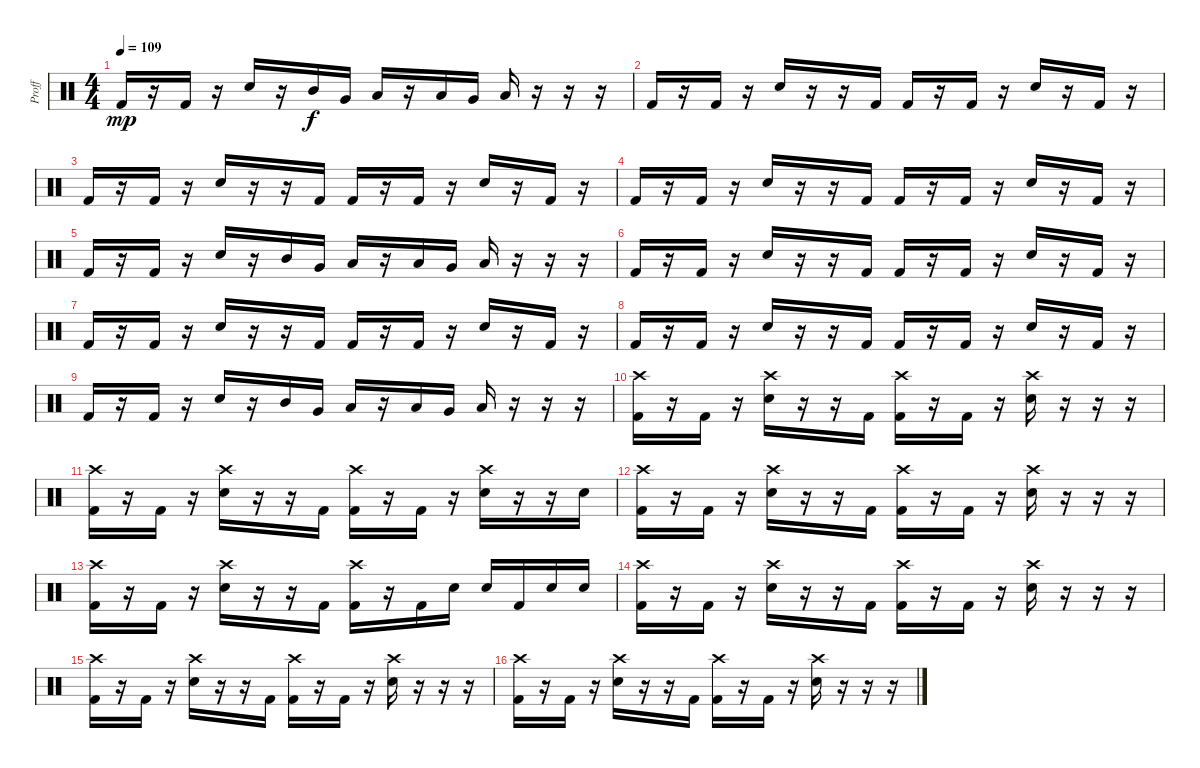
\track ("Proff" "Proff") {instrument percussion}
\staff {score}
\articulation defaults
\ts (4 4)
\tempo 109
\clef neutral
\ks c "Kick (hit) 2".16{dy mp}
r.16 "Kick (hit) 2".16 r.16 "Electric Snare (hit)".16 r.16 "Mid Tom (hit)".16{dy f} "Very Low Tom (hit)".16 "Low Tom (hit)".16 r.16 "Low Tom (hit)".16 "Very Low Tom (hit)".16 "Low Floor Tom (hit)".16 r.16 r.16 r.16 |
"Kick (hit) 2".16 r.16 "Kick (hit) 2".16 r.16 "Electric Snare (hit)".16 r.16 r.16 "Kick (hit) 2".16 "Kick (hit) 2".16 r.16 "Kick (hit) 2".16 r.16 "Electric Snare (hit)".16 r.16 "Kick (hit) 2".16 r.16 |
"Kick (hit) 2".16 r.16 "Kick (hit) 2".16 r.16 "Electric Snare (hit)".16 r.16 r.16 "Kick (hit) 2".16 "Kick (hit) 2".16 r.16 "Kick (hit) 2".16 r.16 "Electric Snare (hit)".16 r.16 "Kick (hit) 2".16 r.16 |
"Kick (hit) 2".16 r.16 "Kick (hit) 2".16 r.16 "Electric Snare (hit)".16 r.16 r.16 "Kick (hit) 2".16 "Kick (hit) 2".16 r.16 "Kick (hit) 2".16 r.16 "Electric Snare (hit)".16 r.16 "Kick (hit) 2".16 r.16 |
"Kick (hit) 2".16 r.16 "Kick (hit) 2".16 r.16 "Electric Snare (hit)".16 r.16 "Mid Tom (hit)".16 "Very Low Tom (hit)".16 "Low Tom (hit)".16 r.16 "Low Tom (hit)".16 "Very Low Tom (hit)".16 "Low Floor Tom (hit)".16 r.16 r.16 r.16 |
"Kick (hit) 2".16 r.16 "Kick (hit) 2".16 r.16 "Electric Snare (hit)".16 r.16 r.16 "Kick (hit) 2".16 "Kick (hit) 2".16 r.16 "Kick (hit) 2".16 r.16 "Electric Snare (hit)".16 r.16 "Kick (hit) 2".16 r.16 |
"Kick (hit) 2".16 r.16 "Kick (hit) 2".16 r.16 "Electric Snare (hit)".16 r.16 r.16 "Kick (hit) 2".16 "Kick (hit) 2".16 r.16 "Kick (hit) 2".16 r.16 "Electric Snare (hit)".16 r.16 "Kick (hit) 2".16 r.16 |
"Kick (hit) 2".16 r.16 "Kick (hit) 2".16 r.16 "Electric Snare (hit)".16 r.16 r.16 "Kick (hit) 2".16 "Kick (hit) 2".16 r.16 "Kick (hit) 2".16 r.16 "Electric Snare (hit)".16 r.16 "Kick (hit) 2".16 r.16 |
"Kick (hit) 2".16 r.16 "Kick (hit) 2".16 r.16 "Electric Snare (hit)".16 r.16 "Mid Tom (hit)".16 "Very Low Tom (hit)".16 "Low Tom (hit)".16 r.16 "Low Tom (hit)".16 "Very Low Tom (hit)".16 "Low Floor Tom (hit)".16 r.16 r.16 r.16 |
("Crash high (hit)" "Kick (hit) 2").16 r.16 "Kick (hit) 2".16 r.16 ("Crash high (hit)" "Electric Snare (hit)").16 r.16 r.16 "Kick (hit) 2".16 ("Crash high (hit)" "Kick (hit) 2").16 r.16 "Kick (hit) 2".16 r.16 ("Crash high (hit)" "Electric Snare (hit)").16 r.16 r.16 r.16 |
("Crash high (hit)" "Kick (hit) 2").16 r.16 "Kick (hit) 2".16 r.16 ("Crash high (hit)" "Electric Snare (hit)").16 r.16 r.16 "Kick (hit) 2".16 ("Crash high (hit)" "Kick (hit) 2").16 r.16 "Kick (hit) 2".16 r.16 ("Crash high (hit)" "Electric Snare (hit)").16 r.16 r.16 "Electric Snare (hit)".16 |
("Crash high (hit)" "Kick (hit) 2").16 r.16 "Kick (hit) 2".16 r.16 ("Crash high (hit)" "Electric Snare (hit)").16 r.16 r.16 "Kick (hit) 2".16 ("Crash high (hit)" "Kick (hit) 2").16 r.16 "Kick (hit) 2".16 r.16 ("Crash high (hit)" "Electric Snare (hit)").16 r.16 r.16 r.16 |
("Crash high (hit)" "Kick (hit) 2").16 r.16 "Kick (hit) 2".16 r.16 ("Crash high (hit)" "Electric Snare (hit)").16 r.16 r.16 "Kick (hit) 2".16 ("Crash high (hit)" "Kick (hit) 2").16 r.16 "Kick (hit) 2".16 "Electric Snare (hit)".16 "Electric Snare (hit)".16 "Kick (hit) 2".16 "Electric Snare (hit)".16 "Electric Snare (hit)".16 |
("Crash high (hit)" "Kick (hit) 2").16 r.16 "Kick (hit) 2".16 r.16 ("Crash high (hit)" "Electric Snare (hit)").16 r.16 r.16 "Kick (hit) 2".16 ("Crash high (hit)" "Kick (hit) 2").16 r.16 "Kick (hit) 2".16 r.16 ("Crash high (hit)" "Electric Snare (hit)").16 r.16 r.16 r.16 |
("Crash high (hit)" "Kick (hit) 2").16 r.16 "Kick (hit) 2".16 r.16 ("Crash high (hit)" "Electric Snare (hit)").16 r.16 r.16 "Kick (hit) 2".16 ("Crash high (hit)" "Kick (hit) 2").16 r.16 "Kick (hit) 2".16 r.16 ("Crash high (hit)" "Electric Snare (hit)").16 r.16 r.16 r.16 |
("Crash high (hit)" "Kick (hit) 2").16 r.16 "Kick (hit) 2".16 r.16 ("Crash high (hit)" "Electric Snare (hit)").16 r.16 r.16 "Kick (hit) 2".16 ("Crash high (hit)" "Kick (hit) 2").16 r.16 "Kick (hit) 2".16 r.16 ("Crash high (hit)" "Electric Snare (hit)").16 r.16 r.16 r.16
